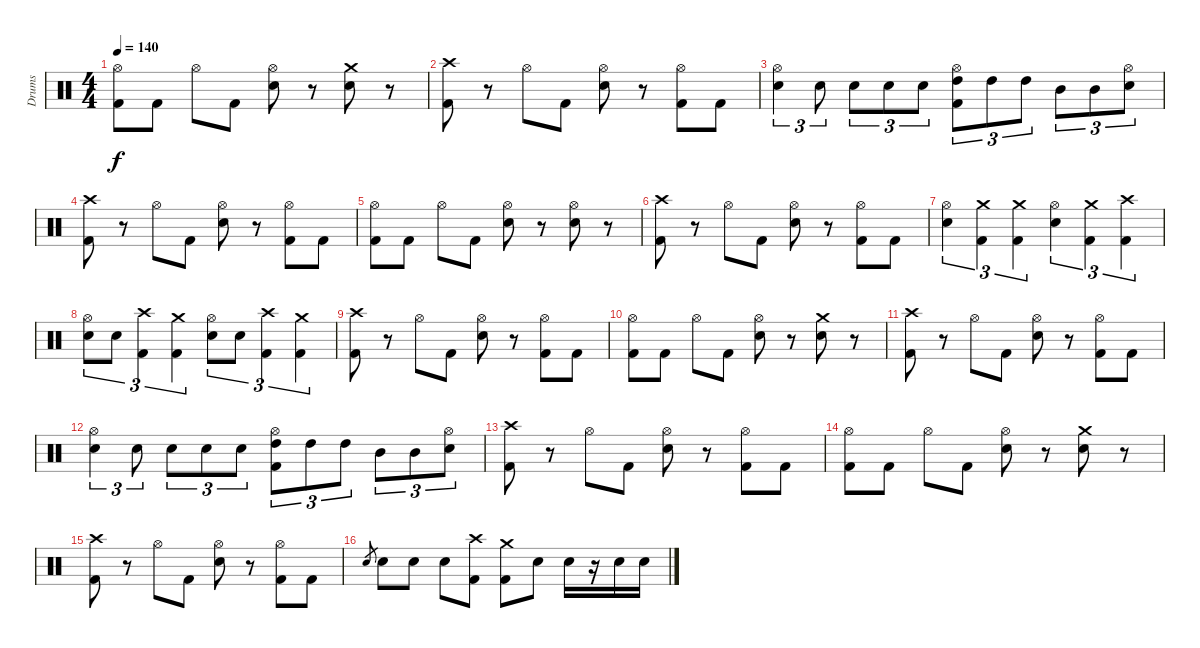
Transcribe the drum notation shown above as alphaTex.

\track ("Drums" "Drums") {instrument percussion}
\staff {score}
\articulation defaults
\ts (4 4)
\tempo 140
\clef neutral
\ks c
("Hi-Hat (open)" "Kick (hit) 2").8{dy f} "Kick (hit) 2".8 "Hi-Hat (open)".8 "Kick (hit) 2".8 ("Hi-Hat (open)" "Snare (hit) 2").8 r.8 ("Crash medium (hit)" "Snare (hit) 2").8 r.8 |
("Crash high (hit)" "Kick (hit) 2").8 r.8 "Hi-Hat (open)".8 "Kick (hit) 2".8 ("Hi-Hat (open)" "Snare (hit) 2").8 r.8 ("Hi-Hat (open)" "Kick (hit) 2").8 "Kick (hit) 2".8 |
("Hi-Hat (open)" "Snare (hit) 2").4{tu (3 2)} "Snare (hit) 2".8{tu (3 2)} "Snare (hit) 2".8{tu (3 2)} "Snare (hit) 2".8{tu (3 2)} "Snare (hit) 2".8{tu (3 2)} ("Hi-Hat (open)" "High Tom (hit)" "Kick (hit) 2").8{tu (3 2)} "High Tom (hit)".8{tu (3 2)} "High Tom (hit)".8{tu (3 2)} "Mid Tom (hit)".8{tu (3 2)} "Mid Tom (hit)".8{tu (3 2)} ("Hi-Hat (open)" "Snare (hit) 2").8{tu (3 2)} |
("Crash high (hit)" "Kick (hit) 2").8 r.8 "Hi-Hat (open)".8 "Kick (hit) 2".8 ("Hi-Hat (open)" "Snare (hit) 2").8 r.8 ("Hi-Hat (open)" "Kick (hit) 2").8 "Kick (hit) 2".8 |
("Hi-Hat (open)" "Kick (hit) 2").8 "Kick (hit) 2".8 "Hi-Hat (open)".8 "Kick (hit) 2".8 ("Hi-Hat (open)" "Snare (hit) 2").8 r.8 ("Hi-Hat (open)" "Snare (hit) 2").8 r.8 |
("Crash high (hit)" "Kick (hit) 2").8 r.8 "Hi-Hat (open)".8 "Kick (hit) 2".8 ("Hi-Hat (open)" "Snare (hit) 2").8 r.8 ("Hi-Hat (open)" "Kick (hit) 2").8 "Kick (hit) 2".8 |
("Hi-Hat (open)" "Snare (hit) 2").4{tu (3 2)} ("Crash medium (hit)" "Kick (hit) 2").4{tu (3 2)} ("Crash medium (hit)" "Kick (hit) 2").4{tu (3 2)} ("Hi-Hat (open)" "Snare (hit) 2").4{tu (3 2)} ("Crash medium (hit)" "Kick (hit) 2").4{tu (3 2)} ("Crash high (hit)" "Kick (hit) 2").4{tu (3 2)} |
("Hi-Hat (open)" "Snare (hit) 2").8{tu (3 2)} "Snare (hit) 2".8{tu (3 2)} ("Crash high (hit)" "Kick (hit) 2").4{tu (3 2)} ("Crash medium (hit)" "Kick (hit) 2").4{tu (3 2)} ("Hi-Hat (open)" "Snare (hit) 2").8{tu (3 2)} "Snare (hit) 2".8{tu (3 2)} ("Crash high (hit)" "Kick (hit) 2").4{tu (3 2)} ("Crash medium (hit)" "Kick (hit) 2").4{tu (3 2)} |
("Crash high (hit)" "Kick (hit) 2").8 r.8 "Hi-Hat (open)".8 "Kick (hit) 2".8 ("Hi-Hat (open)" "Snare (hit) 2").8 r.8 ("Hi-Hat (open)" "Kick (hit) 2").8 "Kick (hit) 2".8 |
("Hi-Hat (open)" "Kick (hit) 2").8 "Kick (hit) 2".8 "Hi-Hat (open)".8 "Kick (hit) 2".8 ("Hi-Hat (open)" "Snare (hit) 2").8 r.8 ("Crash medium (hit)" "Snare (hit) 2").8 r.8 |
("Crash high (hit)" "Kick (hit) 2").8 r.8 "Hi-Hat (open)".8 "Kick (hit) 2".8 ("Hi-Hat (open)" "Snare (hit) 2").8 r.8 ("Hi-Hat (open)" "Kick (hit) 2").8 "Kick (hit) 2".8 |
("Hi-Hat (open)" "Snare (hit) 2").4{tu (3 2)} "Snare (hit) 2".8{tu (3 2)} "Snare (hit) 2".8{tu (3 2)} "Snare (hit) 2".8{tu (3 2)} "Snare (hit) 2".8{tu (3 2)} ("Hi-Hat (open)" "High Tom (hit)" "Kick (hit) 2").8{tu (3 2)} "High Tom (hit)".8{tu (3 2)} "High Tom (hit)".8{tu (3 2)} "Mid Tom (hit)".8{tu (3 2)} "Mid Tom (hit)".8{tu (3 2)} ("Hi-Hat (open)" "Snare (hit) 2").8{tu (3 2)} |
("Crash high (hit)" "Kick (hit) 2").8 r.8 "Hi-Hat (open)".8 "Kick (hit) 2".8 ("Hi-Hat (open)" "Snare (hit) 2").8 r.8 ("Hi-Hat (open)" "Kick (hit) 2").8 "Kick (hit) 2".8 |
("Hi-Hat (open)" "Kick (hit) 2").8 "Kick (hit) 2".8 "Hi-Hat (open)".8 "Kick (hit) 2".8 ("Hi-Hat (open)" "Snare (hit) 2").8 r.8 ("Crash medium (hit)" "Snare (hit) 2").8 r.8 |
("Crash high (hit)" "Kick (hit) 2").8 r.8 "Hi-Hat (open)".8 "Kick (hit) 2".8 ("Hi-Hat (open)" "Snare (hit) 2").8 r.8 ("Hi-Hat (open)" "Kick (hit) 2").8 "Kick (hit) 2".8 |
"Snare (hit) 2".8{gr} "Snare (hit) 2".8 "Snare (hit) 2".8 "Snare (hit) 2".8 ("Crash high (hit)" "Kick (hit) 2").8 ("Crash medium (hit)" "Kick (hit) 2").8 "Snare (hit) 2".8 "Snare (hit) 2".16 r.16 "Snare (hit) 2".16 "Snare (hit) 2".16
